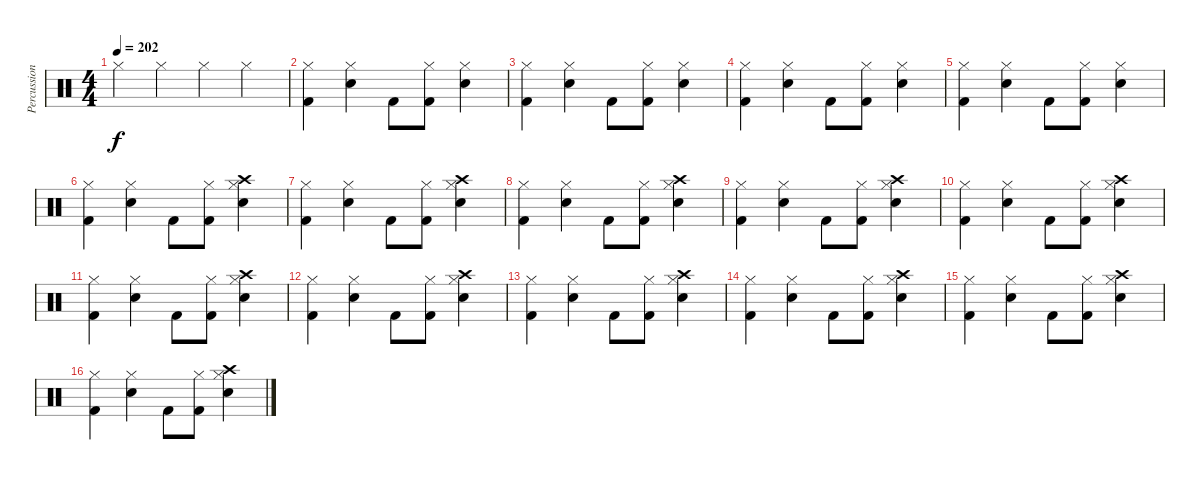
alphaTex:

\track ("Percussioni" "Percussion") {instrument percussion}
\staff {score}
\articulation defaults
\ts (4 4)
\tempo 202
\clef neutral
\ks c "Hi-Hat (closed)".4{dy f} "Hi-Hat (closed)".4 "Hi-Hat (closed)".4 "Hi-Hat (closed)".4
|
("Hi-Hat (closed)" "Kick (hit) 2").4 ("Hi-Hat (closed)" "Snare (hit) 2").4 "Kick (hit) 2".8 ("Hi-Hat (closed)" "Kick (hit) 2").8 ("Hi-Hat (closed)" "Snare (hit) 2").4 |
("Hi-Hat (closed)" "Kick (hit) 2").4 ("Hi-Hat (closed)" "Snare (hit) 2").4 "Kick (hit) 2".8 ("Hi-Hat (closed)" "Kick (hit) 2").8 ("Hi-Hat (closed)" "Snare (hit) 2").4 |
("Hi-Hat (closed)" "Kick (hit) 2").4 ("Hi-Hat (closed)" "Snare (hit) 2").4 "Kick (hit) 2".8 ("Hi-Hat (closed)" "Kick (hit) 2").8 ("Hi-Hat (closed)" "Snare (hit) 2").4 |
("Hi-Hat (closed)" "Kick (hit) 2").4 ("Hi-Hat (closed)" "Snare (hit) 2").4 "Kick (hit) 2".8 ("Hi-Hat (closed)" "Kick (hit) 2").8 ("Hi-Hat (closed)" "Snare (hit) 2").4 |
("Hi-Hat (closed)" "Kick (hit) 2").4 ("Hi-Hat (closed)" "Snare (hit) 2").4 "Kick (hit) 2".8 ("Hi-Hat (closed)" "Kick (hit) 2").8 ("Hi-Hat (closed)" "Crash high (hit)" "Snare (hit) 2").4 |
("Hi-Hat (closed)" "Kick (hit) 2").4 ("Hi-Hat (closed)" "Snare (hit) 2").4 "Kick (hit) 2".8 ("Hi-Hat (closed)" "Kick (hit) 2").8 ("Hi-Hat (closed)" "Crash high (hit)" "Snare (hit) 2").4 |
("Hi-Hat (closed)" "Kick (hit) 2").4 ("Hi-Hat (closed)" "Snare (hit) 2").4 "Kick (hit) 2".8 ("Hi-Hat (closed)" "Kick (hit) 2").8 ("Hi-Hat (closed)" "Crash high (hit)" "Snare (hit) 2").4 |
("Hi-Hat (closed)" "Kick (hit) 2").4 ("Hi-Hat (closed)" "Snare (hit) 2").4 "Kick (hit) 2".8 ("Hi-Hat (closed)" "Kick (hit) 2").8 ("Hi-Hat (closed)" "Crash high (hit)" "Snare (hit) 2").4 |
("Hi-Hat (closed)" "Kick (hit) 2").4 ("Hi-Hat (closed)" "Snare (hit) 2").4 "Kick (hit) 2".8 ("Hi-Hat (closed)" "Kick (hit) 2").8 ("Hi-Hat (closed)" "Crash high (hit)" "Snare (hit) 2").4 |
("Hi-Hat (closed)" "Kick (hit) 2").4 ("Hi-Hat (closed)" "Snare (hit) 2").4 "Kick (hit) 2".8 ("Hi-Hat (closed)" "Kick (hit) 2").8 ("Hi-Hat (closed)" "Crash high (hit)" "Snare (hit) 2").4 |
("Hi-Hat (closed)" "Kick (hit) 2").4 ("Hi-Hat (closed)" "Snare (hit) 2").4 "Kick (hit) 2".8 ("Hi-Hat (closed)" "Kick (hit) 2").8 ("Hi-Hat (closed)" "Crash high (hit)" "Snare (hit) 2").4 |
("Hi-Hat (closed)" "Kick (hit) 2").4 ("Hi-Hat (closed)" "Snare (hit) 2").4 "Kick (hit) 2".8 ("Hi-Hat (closed)" "Kick (hit) 2").8 ("Hi-Hat (closed)" "Crash high (hit)" "Snare (hit) 2").4 |
("Hi-Hat (closed)" "Kick (hit) 2").4 ("Hi-Hat (closed)" "Snare (hit) 2").4 "Kick (hit) 2".8 ("Hi-Hat (closed)" "Kick (hit) 2").8 ("Hi-Hat (closed)" "Crash high (hit)" "Snare (hit) 2").4 |
("Hi-Hat (closed)" "Kick (hit) 2").4 ("Hi-Hat (closed)" "Snare (hit) 2").4 "Kick (hit) 2".8 ("Hi-Hat (closed)" "Kick (hit) 2").8 ("Hi-Hat (closed)" "Crash high (hit)" "Snare (hit) 2").4 |
("Hi-Hat (closed)" "Kick (hit) 2").4 ("Hi-Hat (closed)" "Snare (hit) 2").4 "Kick (hit) 2".8 ("Hi-Hat (closed)" "Kick (hit) 2").8 ("Hi-Hat (closed)" "Crash high (hit)" "Snare (hit) 2").4
